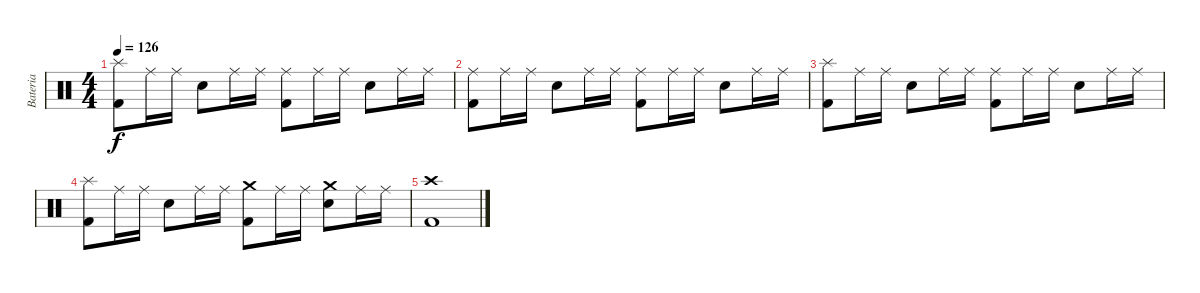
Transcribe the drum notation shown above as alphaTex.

\track ("Bateria" "Bateria") {instrument percussion}
\staff {score}
\articulation defaults
\ts (4 4)
\tempo 126
\clef neutral
\ks c
("Splash (hit)" "Kick (hit) 2").8{dy f} "Ride (middle)".16 "Ride (middle)".16 "Electric Snare (hit)".8 "Ride (middle)".16 "Ride (middle)".16 ("Ride (middle)" "Kick (hit) 2").8 "Ride (middle)".16 "Ride (middle)".16 "Electric Snare (hit)".8 "Ride (middle)".16 "Ride (middle)".16 |
("Ride (middle)" "Kick (hit) 2").8 "Ride (middle)".16 "Ride (middle)".16 "Electric Snare (hit)".8 "Ride (middle)".16 "Ride (middle)".16 ("Ride (middle)" "Kick (hit) 2").8 "Ride (middle)".16 "Ride (middle)".16 "Electric Snare (hit)".8 "Ride (middle)".16 "Ride (middle)".16 |
("Splash (hit)" "Kick (hit) 2").8 "Ride (middle)".16 "Ride (middle)".16 "Electric Snare (hit)".8 "Ride (middle)".16 "Ride (middle)".16 ("Ride (middle)" "Kick (hit) 2").8 "Ride (middle)".16 "Ride (middle)".16 "Electric Snare (hit)".8 "Ride (middle)".16 "Ride (middle)".16 |
("Splash (hit)" "Kick (hit) 2").8 "Ride (middle)".16 "Ride (middle)".16 "Electric Snare (hit)".8 "Ride (middle)".16 "Ride (middle)".16 ("Crash medium (hit)" "Kick (hit) 2").8 "Ride (middle)".16 "Ride (middle)".16 ("Crash medium (hit)" "Electric Snare (hit)").8 "Ride (middle)".16 "Ride (middle)".16 |
("Crash high (hit)" "Kick (hit) 2").1
